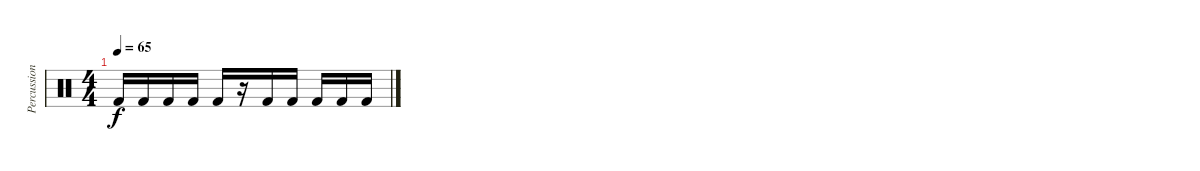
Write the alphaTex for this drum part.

\track ("Percussion" "Percussion") {instrument percussion}
\staff {score}
\articulation defaults
\ts (4 4)
\tempo 65
\clef neutral
\ks c "Kick (hit) 2".16{dy f} "Kick (hit) 2".16 "Kick (hit) 2".16 "Kick (hit) 2".16 "Kick (hit) 2".16
r.16 "Kick (hit) 2".16 "Kick (hit) 2".16 "Kick (hit) 2".16 "Kick (hit) 2".16 "Kick (hit) 2".16
